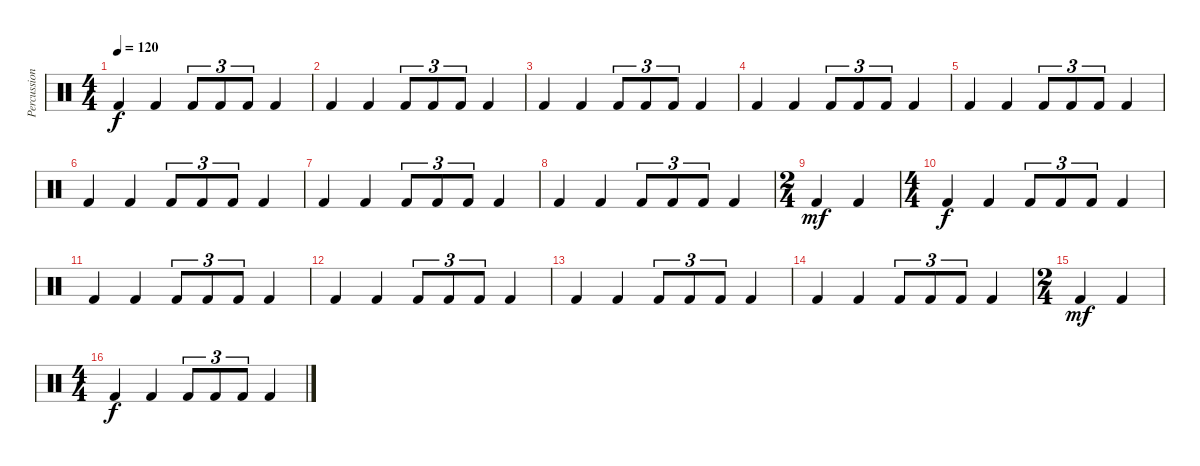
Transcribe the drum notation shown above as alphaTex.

\track ("Percussion" "Percussion") {instrument percussion}
\staff {score}
\articulation defaults
\ts (4 4)
\tempo 120
\clef neutral
\ks c "Kick (hit) 2".4{dy f} "Kick (hit) 2".4 "Kick (hit) 2".8{tu (3 2)} "Kick (hit) 2".8{tu (3 2)} "Kick (hit) 2".8{tu (3 2)} "Kick (hit) 2".4
|
"Kick (hit) 2".4 "Kick (hit) 2".4 "Kick (hit) 2".8{tu (3 2)} "Kick (hit) 2".8{tu (3 2)} "Kick (hit) 2".8{tu (3 2)} "Kick (hit) 2".4 |
"Kick (hit) 2".4 "Kick (hit) 2".4 "Kick (hit) 2".8{tu (3 2)} "Kick (hit) 2".8{tu (3 2)} "Kick (hit) 2".8{tu (3 2)} "Kick (hit) 2".4 |
"Kick (hit) 2".4 "Kick (hit) 2".4 "Kick (hit) 2".8{tu (3 2)} "Kick (hit) 2".8{tu (3 2)} "Kick (hit) 2".8{tu (3 2)} "Kick (hit) 2".4 |
"Kick (hit) 2".4 "Kick (hit) 2".4 "Kick (hit) 2".8{tu (3 2)} "Kick (hit) 2".8{tu (3 2)} "Kick (hit) 2".8{tu (3 2)} "Kick (hit) 2".4 |
"Kick (hit) 2".4 "Kick (hit) 2".4 "Kick (hit) 2".8{tu (3 2)} "Kick (hit) 2".8{tu (3 2)} "Kick (hit) 2".8{tu (3 2)} "Kick (hit) 2".4 |
"Kick (hit) 2".4 "Kick (hit) 2".4 "Kick (hit) 2".8{tu (3 2)} "Kick (hit) 2".8{tu (3 2)} "Kick (hit) 2".8{tu (3 2)} "Kick (hit) 2".4 |
"Kick (hit) 2".4 "Kick (hit) 2".4 "Kick (hit) 2".8{tu (3 2)} "Kick (hit) 2".8{tu (3 2)} "Kick (hit) 2".8{tu (3 2)} "Kick (hit) 2".4 |
\ts (2 4)
"Kick (hit) 2".4{dy mf} "Kick (hit) 2".4 |
\ts (4 4)
"Kick (hit) 2".4{dy f} "Kick (hit) 2".4 "Kick (hit) 2".8{tu (3 2)} "Kick (hit) 2".8{tu (3 2)} "Kick (hit) 2".8{tu (3 2)} "Kick (hit) 2".4 |
"Kick (hit) 2".4 "Kick (hit) 2".4 "Kick (hit) 2".8{tu (3 2)} "Kick (hit) 2".8{tu (3 2)} "Kick (hit) 2".8{tu (3 2)} "Kick (hit) 2".4 |
"Kick (hit) 2".4 "Kick (hit) 2".4 "Kick (hit) 2".8{tu (3 2)} "Kick (hit) 2".8{tu (3 2)} "Kick (hit) 2".8{tu (3 2)} "Kick (hit) 2".4 |
"Kick (hit) 2".4 "Kick (hit) 2".4 "Kick (hit) 2".8{tu (3 2)} "Kick (hit) 2".8{tu (3 2)} "Kick (hit) 2".8{tu (3 2)} "Kick (hit) 2".4 |
"Kick (hit) 2".4 "Kick (hit) 2".4 "Kick (hit) 2".8{tu (3 2)} "Kick (hit) 2".8{tu (3 2)} "Kick (hit) 2".8{tu (3 2)} "Kick (hit) 2".4 |
\ts (2 4)
"Kick (hit) 2".4{dy mf} "Kick (hit) 2".4 |
\ts (4 4)
"Kick (hit) 2".4{dy f} "Kick (hit) 2".4 "Kick (hit) 2".8{tu (3 2)} "Kick (hit) 2".8{tu (3 2)} "Kick (hit) 2".8{tu (3 2)} "Kick (hit) 2".4
